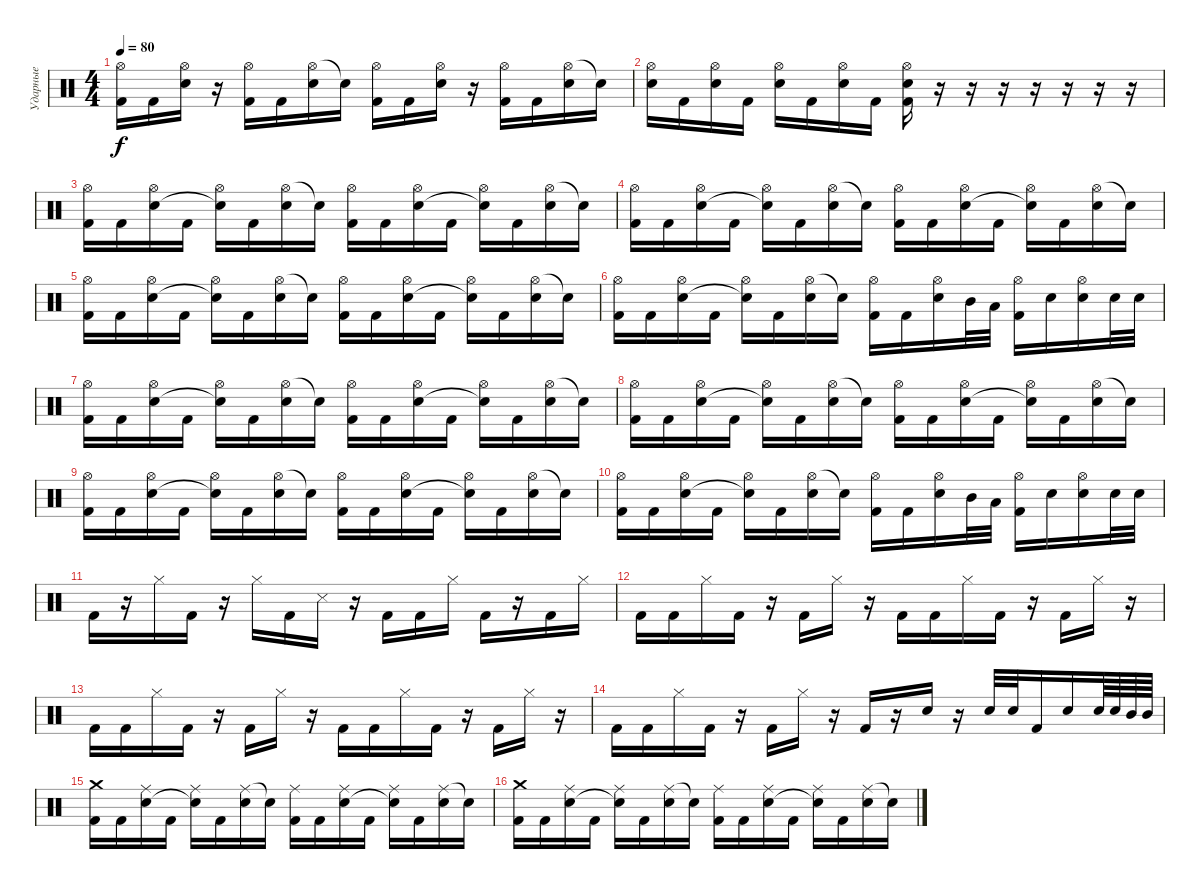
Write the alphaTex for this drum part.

\track ("Ударные" "Ударные") {instrument percussion}
\staff {score}
\articulation defaults
\ts (4 4)
\tempo 80
\clef neutral
\ks c
("Hi-Hat (open)" "Kick (hit) 2").16{dy f} "Kick (hit) 2".16 ("Hi-Hat (open)" "Electric Snare (hit)").16 r.16 ("Hi-Hat (open)" "Kick (hit) 2").16 "Kick (hit) 2".16 ("Hi-Hat (open)" "Electric Snare (hit)").16 "Snare (hit)"{t}.16 ("Hi-Hat (open)" "Kick (hit) 2").16 "Kick (hit) 2".16 ("Hi-Hat (open)" "Electric Snare (hit)").16 r.16 ("Hi-Hat (open)" "Kick (hit) 2").16 "Kick (hit) 2".16 ("Hi-Hat (open)" "Electric Snare (hit)").16 "Snare (hit)"{t}.16 |
("Hi-Hat (open)" "Electric Snare (hit)").16 "Kick (hit) 2".16 ("Hi-Hat (open)" "Electric Snare (hit)").16 "Kick (hit) 2".16 ("Hi-Hat (open)" "Electric Snare (hit)").16 "Kick (hit) 2".16 ("Hi-Hat (open)" "Electric Snare (hit)").16 "Kick (hit) 2".16 ("Hi-Hat (open)" "Electric Snare (hit)" "Kick (hit) 2").16 r.16 r.16 r.16 r.16 r.16 r.16 r.16 |
("Hi-Hat (open)" "Kick (hit) 2").16 "Kick (hit) 2".16 ("Hi-Hat (open)" "Electric Snare (hit)").16 "Kick (hit) 2".16 ("Hi-Hat (open)" "Snare (hit)"{t}).16 "Kick (hit) 2".16 ("Hi-Hat (open)" "Electric Snare (hit)").16 "Snare (hit)"{t}.16 ("Hi-Hat (open)" "Kick (hit) 2").16 "Kick (hit) 2".16 ("Hi-Hat (open)" "Electric Snare (hit)").16 "Kick (hit) 2".16 ("Hi-Hat (open)" "Snare (hit)"{t}).16 "Kick (hit) 2".16 ("Hi-Hat (open)" "Electric Snare (hit)").16 "Snare (hit)"{t}.16 |
("Hi-Hat (open)" "Kick (hit) 2").16 "Kick (hit) 2".16 ("Hi-Hat (open)" "Electric Snare (hit)").16 "Kick (hit) 2".16 ("Hi-Hat (open)" "Snare (hit)"{t}).16 "Kick (hit) 2".16 ("Hi-Hat (open)" "Electric Snare (hit)").16 "Snare (hit)"{t}.16 ("Hi-Hat (open)" "Kick (hit) 2").16 "Kick (hit) 2".16 ("Hi-Hat (open)" "Electric Snare (hit)").16 "Kick (hit) 2".16 ("Hi-Hat (open)" "Snare (hit)"{t}).16 "Kick (hit) 2".16 ("Hi-Hat (open)" "Electric Snare (hit)").16 "Snare (hit)"{t}.16 |
("Hi-Hat (open)" "Kick (hit) 2").16 "Kick (hit) 2".16 ("Hi-Hat (open)" "Electric Snare (hit)").16 "Kick (hit) 2".16 ("Hi-Hat (open)" "Snare (hit)"{t}).16 "Kick (hit) 2".16 ("Hi-Hat (open)" "Electric Snare (hit)").16 "Snare (hit)"{t}.16 ("Hi-Hat (open)" "Kick (hit) 2").16 "Kick (hit) 2".16 ("Hi-Hat (open)" "Electric Snare (hit)").16 "Kick (hit) 2".16 ("Hi-Hat (open)" "Snare (hit)"{t}).16 "Kick (hit) 2".16 ("Hi-Hat (open)" "Electric Snare (hit)").16 "Snare (hit)"{t}.16 |
("Hi-Hat (open)" "Kick (hit) 2").16 "Kick (hit) 2".16 ("Hi-Hat (open)" "Electric Snare (hit)").16 "Kick (hit) 2".16 ("Hi-Hat (open)" "Snare (hit)"{t}).16 "Kick (hit) 2".16 ("Hi-Hat (open)" "Electric Snare (hit)").16 "Snare (hit)"{t}.16 ("Hi-Hat (open)" "Kick (hit) 2").16 "Kick (hit) 2".16 ("Hi-Hat (open)" "Electric Snare (hit)").16 "Mid Tom (hit)".32 "Low Tom (hit)".32 ("Hi-Hat (open)" "Kick (hit) 2").16 "Electric Snare (hit)".16 ("Hi-Hat (open)" "Electric Snare (hit)").16 "Electric Snare (hit)".32 "Electric Snare (hit)".32 |
("Hi-Hat (open)" "Kick (hit) 2").16 "Kick (hit) 2".16 ("Hi-Hat (open)" "Electric Snare (hit)").16 "Kick (hit) 2".16 ("Hi-Hat (open)" "Snare (hit)"{t}).16 "Kick (hit) 2".16 ("Hi-Hat (open)" "Electric Snare (hit)").16 "Snare (hit)"{t}.16 ("Hi-Hat (open)" "Kick (hit) 2").16 "Kick (hit) 2".16 ("Hi-Hat (open)" "Electric Snare (hit)").16 "Kick (hit) 2".16 ("Hi-Hat (open)" "Snare (hit)"{t}).16 "Kick (hit) 2".16 ("Hi-Hat (open)" "Electric Snare (hit)").16 "Snare (hit)"{t}.16 |
("Hi-Hat (open)" "Kick (hit) 2").16 "Kick (hit) 2".16 ("Hi-Hat (open)" "Electric Snare (hit)").16 "Kick (hit) 2".16 ("Hi-Hat (open)" "Snare (hit)"{t}).16 "Kick (hit) 2".16 ("Hi-Hat (open)" "Electric Snare (hit)").16 "Snare (hit)"{t}.16 ("Hi-Hat (open)" "Kick (hit) 2").16 "Kick (hit) 2".16 ("Hi-Hat (open)" "Electric Snare (hit)").16 "Kick (hit) 2".16 ("Hi-Hat (open)" "Snare (hit)"{t}).16 "Kick (hit) 2".16 ("Hi-Hat (open)" "Electric Snare (hit)").16 "Snare (hit)"{t}.16 |
("Hi-Hat (open)" "Kick (hit) 2").16 "Kick (hit) 2".16 ("Hi-Hat (open)" "Electric Snare (hit)").16 "Kick (hit) 2".16 ("Hi-Hat (open)" "Snare (hit)"{t}).16 "Kick (hit) 2".16 ("Hi-Hat (open)" "Electric Snare (hit)").16 "Snare (hit)"{t}.16 ("Hi-Hat (open)" "Kick (hit) 2").16 "Kick (hit) 2".16 ("Hi-Hat (open)" "Electric Snare (hit)").16 "Kick (hit) 2".16 ("Hi-Hat (open)" "Snare (hit)"{t}).16 "Kick (hit) 2".16 ("Hi-Hat (open)" "Electric Snare (hit)").16 "Snare (hit)"{t}.16 |
("Hi-Hat (open)" "Kick (hit) 2").16 "Kick (hit) 2".16 ("Hi-Hat (open)" "Electric Snare (hit)").16 "Kick (hit) 2".16 ("Hi-Hat (open)" "Snare (hit)"{t}).16 "Kick (hit) 2".16 ("Hi-Hat (open)" "Electric Snare (hit)").16 "Snare (hit)"{t}.16 ("Hi-Hat (open)" "Kick (hit) 2").16 "Kick (hit) 2".16 ("Hi-Hat (open)" "Electric Snare (hit)").16 "Mid Tom (hit)".32 "Low Tom (hit)".32 ("Hi-Hat (open)" "Kick (hit) 2").16 "Electric Snare (hit)".16 ("Hi-Hat (open)" "Electric Snare (hit)").16 "Electric Snare (hit)".32 "Electric Snare (hit)".32 |
"Kick (hit) 2".16 r.16 "Hi-Hat (closed)".16 "Kick (hit) 2".16 r.16 "Hi-Hat (closed)".16 "Kick (hit) 2".16 "Snare (side stick) 3".16 r.16 "Kick (hit) 2".16 "Kick (hit) 2".16 "Hi-Hat (closed)".16 "Kick (hit) 2".16 r.16 "Kick (hit) 2".16 "Hi-Hat (closed)".16 |
"Kick (hit) 2".16 "Kick (hit) 2".16 "Hi-Hat (closed)".16 "Kick (hit) 2".16 r.16 "Kick (hit) 2".16 "Hi-Hat (closed)".16 r.16 "Kick (hit) 2".16 "Kick (hit) 2".16 "Hi-Hat (closed)".16 "Kick (hit) 2".16 r.16 "Kick (hit) 2".16 "Hi-Hat (closed)".16 r.16 |
"Kick (hit) 2".16 "Kick (hit) 2".16 "Hi-Hat (closed)".16 "Kick (hit) 2".16 r.16 "Kick (hit) 2".16 "Hi-Hat (closed)".16 r.16 "Kick (hit) 2".16 "Kick (hit) 2".16 "Hi-Hat (closed)".16 "Kick (hit) 2".16 r.16 "Kick (hit) 2".16 "Hi-Hat (closed)".16 r.16 |
"Kick (hit) 2".16 "Kick (hit) 2".16 "Hi-Hat (closed)".16 "Kick (hit) 2".16 r.16 "Kick (hit) 2".16 "Hi-Hat (closed)".16 r.16 "Kick (hit) 2".16 r.16 "Electric Snare (hit)".16 r.16 "Electric Snare (hit)".32 "Electric Snare (hit)".32 "Kick (hit) 2".16 "Electric Snare (hit)".16 "Electric Snare (hit)".64 "Electric Snare (hit)".64 "Mid Tom (hit)".64 "Mid Tom (hit)".64 |
("Crash medium (hit)" "Kick (hit) 2").16 "Kick (hit) 2".16 ("Ride (middle)" "Electric Snare (hit)").16 "Kick (hit) 2".16 ("Ride (middle)" "Snare (hit)"{t}).16 "Kick (hit) 2".16 ("Ride (middle)" "Electric Snare (hit)").16 "Snare (hit)"{t}.16 ("Ride (middle)" "Kick (hit) 2").16 "Kick (hit) 2".16 ("Ride (middle)" "Electric Snare (hit)").16 "Kick (hit) 2".16 ("Ride (middle)" "Snare (hit)"{t}).16 "Kick (hit) 2".16 ("Ride (middle)" "Electric Snare (hit)").16 "Snare (hit)"{t}.16 |
("Crash medium (hit)" "Kick (hit) 2").16 "Kick (hit) 2".16 ("Ride (middle)" "Electric Snare (hit)").16 "Kick (hit) 2".16 ("Ride (middle)" "Snare (hit)"{t}).16 "Kick (hit) 2".16 ("Ride (middle)" "Electric Snare (hit)").16 "Snare (hit)"{t}.16 ("Ride (middle)" "Kick (hit) 2").16 "Kick (hit) 2".16 ("Ride (middle)" "Electric Snare (hit)").16 "Kick (hit) 2".16 ("Ride (middle)" "Snare (hit)"{t}).16 "Kick (hit) 2".16 ("Ride (middle)" "Electric Snare (hit)").16 "Snare (hit)"{t}.16
